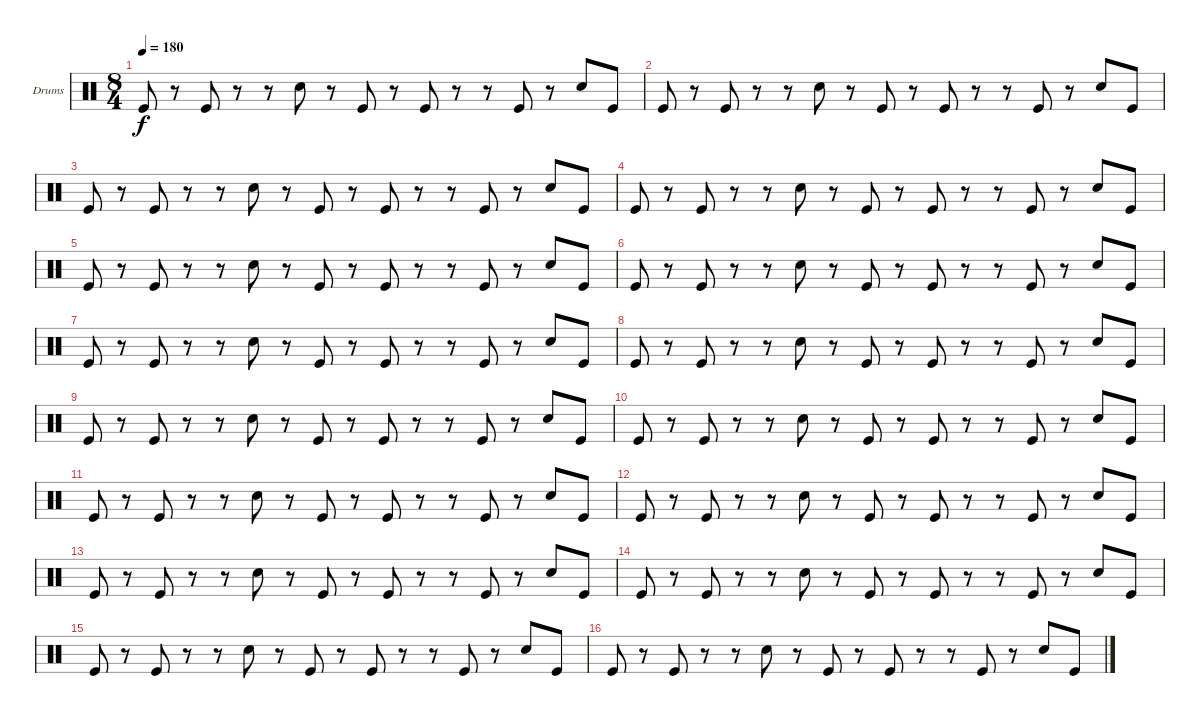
\defaultSystemsLayout 4
\bracketExtendMode groupsimilarinstruments
\firstSystemTrackNameOrientation horizontal
\otherSystemsTrackNameOrientation horizontal
\track ("Drumkit" "Drums") {instrument percussion}
\staff {score}
\articulation defaults
\ts (8 4)
\tempo 180
\clef neutral
\ks c "Kick (hit)".8{dy f}
r.8 "Kick (hit)".8 r.8 r.8 "Snare (hit) 2".8 r.8 "Kick (hit)".8 r.8 "Kick (hit)".8 r.8 r.8 "Kick (hit)".8 r.8 "Snare (hit) 2".8 "Kick (hit)".8 |
"Kick (hit)".8 r.8 "Kick (hit)".8 r.8 r.8 "Snare (hit) 2".8 r.8 "Kick (hit)".8 r.8 "Kick (hit)".8 r.8 r.8 "Kick (hit)".8 r.8 "Snare (hit) 2".8 "Kick (hit)".8 |
"Kick (hit)".8 r.8 "Kick (hit)".8 r.8 r.8 "Snare (hit) 2".8 r.8 "Kick (hit)".8 r.8 "Kick (hit)".8 r.8 r.8 "Kick (hit)".8 r.8 "Snare (hit) 2".8 "Kick (hit)".8 |
"Kick (hit)".8 r.8 "Kick (hit)".8 r.8 r.8 "Snare (hit) 2".8 r.8 "Kick (hit)".8 r.8 "Kick (hit)".8 r.8 r.8 "Kick (hit)".8 r.8 "Snare (hit) 2".8 "Kick (hit)".8 |
"Kick (hit)".8 r.8 "Kick (hit)".8 r.8 r.8 "Snare (hit) 2".8 r.8 "Kick (hit)".8 r.8 "Kick (hit)".8 r.8 r.8 "Kick (hit)".8 r.8 "Snare (hit) 2".8 "Kick (hit)".8 |
"Kick (hit)".8 r.8 "Kick (hit)".8 r.8 r.8 "Snare (hit) 2".8 r.8 "Kick (hit)".8 r.8 "Kick (hit)".8 r.8 r.8 "Kick (hit)".8 r.8 "Snare (hit) 2".8 "Kick (hit)".8 |
"Kick (hit)".8 r.8 "Kick (hit)".8 r.8 r.8 "Snare (hit) 2".8 r.8 "Kick (hit)".8 r.8 "Kick (hit)".8 r.8 r.8 "Kick (hit)".8 r.8 "Snare (hit) 2".8 "Kick (hit)".8 |
"Kick (hit)".8 r.8 "Kick (hit)".8 r.8 r.8 "Snare (hit) 2".8 r.8 "Kick (hit)".8 r.8 "Kick (hit)".8 r.8 r.8 "Kick (hit)".8 r.8 "Snare (hit) 2".8 "Kick (hit)".8 |
"Kick (hit)".8 r.8 "Kick (hit)".8 r.8 r.8 "Snare (hit) 2".8 r.8 "Kick (hit)".8 r.8 "Kick (hit)".8 r.8 r.8 "Kick (hit)".8 r.8 "Snare (hit) 2".8 "Kick (hit)".8 |
"Kick (hit)".8 r.8 "Kick (hit)".8 r.8 r.8 "Snare (hit) 2".8 r.8 "Kick (hit)".8 r.8 "Kick (hit)".8 r.8 r.8 "Kick (hit)".8 r.8 "Snare (hit) 2".8 "Kick (hit)".8 |
"Kick (hit)".8 r.8 "Kick (hit)".8 r.8 r.8 "Snare (hit) 2".8 r.8 "Kick (hit)".8 r.8 "Kick (hit)".8 r.8 r.8 "Kick (hit)".8 r.8 "Snare (hit) 2".8 "Kick (hit)".8 |
"Kick (hit)".8 r.8 "Kick (hit)".8 r.8 r.8 "Snare (hit) 2".8 r.8 "Kick (hit)".8 r.8 "Kick (hit)".8 r.8 r.8 "Kick (hit)".8 r.8 "Snare (hit) 2".8 "Kick (hit)".8 |
"Kick (hit)".8 r.8 "Kick (hit)".8 r.8 r.8 "Snare (hit) 2".8 r.8 "Kick (hit)".8 r.8 "Kick (hit)".8 r.8 r.8 "Kick (hit)".8 r.8 "Snare (hit) 2".8 "Kick (hit)".8 |
"Kick (hit)".8 r.8 "Kick (hit)".8 r.8 r.8 "Snare (hit) 2".8 r.8 "Kick (hit)".8 r.8 "Kick (hit)".8 r.8 r.8 "Kick (hit)".8 r.8 "Snare (hit) 2".8 "Kick (hit)".8 |
"Kick (hit)".8 r.8 "Kick (hit)".8 r.8 r.8 "Snare (hit) 2".8 r.8 "Kick (hit)".8 r.8 "Kick (hit)".8 r.8 r.8 "Kick (hit)".8 r.8 "Snare (hit) 2".8 "Kick (hit)".8 |
"Kick (hit)".8 r.8 "Kick (hit)".8 r.8 r.8 "Snare (hit) 2".8 r.8 "Kick (hit)".8 r.8 "Kick (hit)".8 r.8 r.8 "Kick (hit)".8 r.8 "Snare (hit) 2".8 "Kick (hit)".8
